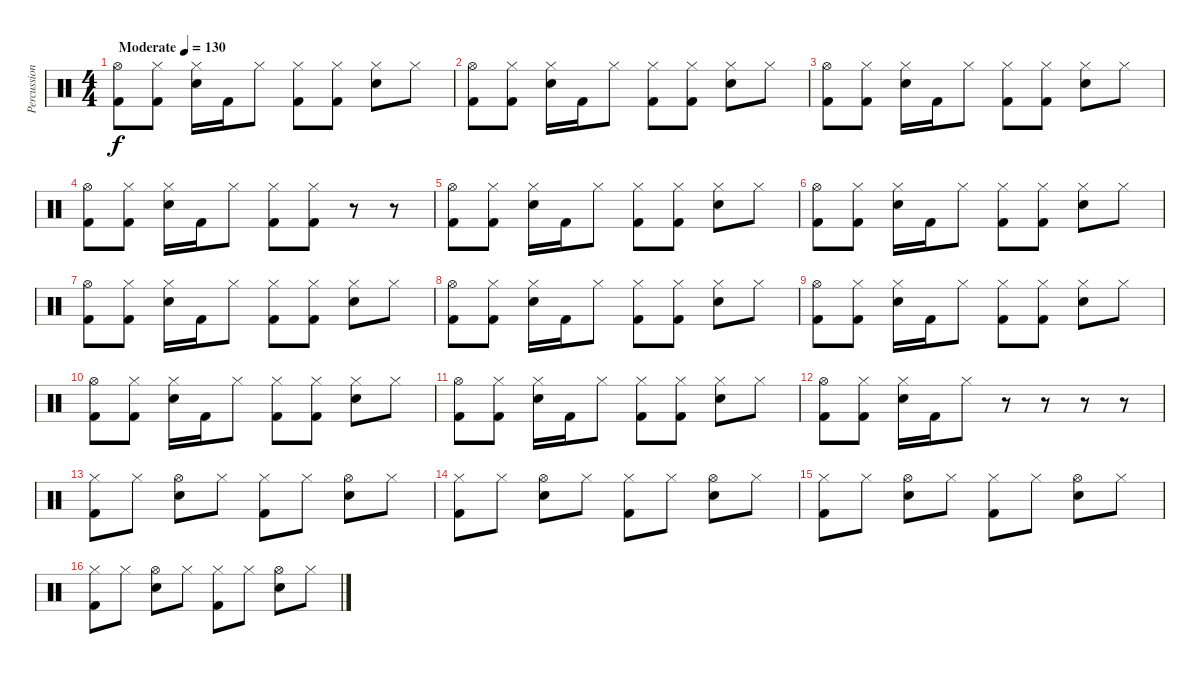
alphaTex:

\track ("Percussion" "Percussion") {instrument percussion}
\staff {score}
\articulation defaults
\ts (4 4)
\tempo (130 "Moderate")
\clef neutral
\ks c
("Hi-Hat (open)" "Kick (hit) 2").8{dy f} ("Hi-Hat (closed)" "Kick (hit) 2").8 ("Hi-Hat (closed)" "Electric Snare (hit)").16 "Kick (hit) 2".16 "Hi-Hat (closed)".8 ("Hi-Hat (closed)" "Kick (hit) 2").8 ("Hi-Hat (closed)" "Kick (hit) 2").8 ("Hi-Hat (closed)" "Electric Snare (hit)").8 "Hi-Hat (closed)".8 |
("Hi-Hat (open)" "Kick (hit) 2").8 ("Hi-Hat (closed)" "Kick (hit) 2").8 ("Hi-Hat (closed)" "Electric Snare (hit)").16 "Kick (hit) 2".16 "Hi-Hat (closed)".8 ("Hi-Hat (closed)" "Kick (hit) 2").8 ("Hi-Hat (closed)" "Kick (hit) 2").8 ("Hi-Hat (closed)" "Electric Snare (hit)").8 "Hi-Hat (closed)".8 |
("Hi-Hat (open)" "Kick (hit) 2").8 ("Hi-Hat (closed)" "Kick (hit) 2").8 ("Hi-Hat (closed)" "Electric Snare (hit)").16 "Kick (hit) 2".16 "Hi-Hat (closed)".8 ("Hi-Hat (closed)" "Kick (hit) 2").8 ("Hi-Hat (closed)" "Kick (hit) 2").8 ("Hi-Hat (closed)" "Electric Snare (hit)").8 "Hi-Hat (closed)".8 |
("Hi-Hat (open)" "Kick (hit) 2").8 ("Hi-Hat (closed)" "Kick (hit) 2").8 ("Hi-Hat (closed)" "Electric Snare (hit)").16 "Kick (hit) 2".16 "Hi-Hat (closed)".8 ("Hi-Hat (closed)" "Kick (hit) 2").8 ("Hi-Hat (closed)" "Kick (hit) 2").8 r.8 r.8 |
("Hi-Hat (open)" "Kick (hit) 2").8 ("Hi-Hat (closed)" "Kick (hit) 2").8 ("Hi-Hat (closed)" "Electric Snare (hit)").16 "Kick (hit) 2".16 "Hi-Hat (closed)".8 ("Hi-Hat (closed)" "Kick (hit) 2").8 ("Hi-Hat (closed)" "Kick (hit) 2").8 ("Hi-Hat (closed)" "Electric Snare (hit)").8 "Hi-Hat (closed)".8 |
("Hi-Hat (open)" "Kick (hit) 2").8 ("Hi-Hat (closed)" "Kick (hit) 2").8 ("Hi-Hat (closed)" "Electric Snare (hit)").16 "Kick (hit) 2".16 "Hi-Hat (closed)".8 ("Hi-Hat (closed)" "Kick (hit) 2").8 ("Hi-Hat (closed)" "Kick (hit) 2").8 ("Hi-Hat (closed)" "Electric Snare (hit)").8 "Hi-Hat (closed)".8 |
("Hi-Hat (open)" "Kick (hit) 2").8 ("Hi-Hat (closed)" "Kick (hit) 2").8 ("Hi-Hat (closed)" "Electric Snare (hit)").16 "Kick (hit) 2".16 "Hi-Hat (closed)".8 ("Hi-Hat (closed)" "Kick (hit) 2").8 ("Hi-Hat (closed)" "Kick (hit) 2").8 ("Hi-Hat (closed)" "Electric Snare (hit)").8 "Hi-Hat (closed)".8 |
("Hi-Hat (open)" "Kick (hit) 2").8 ("Hi-Hat (closed)" "Kick (hit) 2").8 ("Hi-Hat (closed)" "Electric Snare (hit)").16 "Kick (hit) 2".16 "Hi-Hat (closed)".8 ("Hi-Hat (closed)" "Kick (hit) 2").8 ("Hi-Hat (closed)" "Kick (hit) 2").8 ("Hi-Hat (closed)" "Electric Snare (hit)").8 "Hi-Hat (closed)".8 |
("Hi-Hat (open)" "Kick (hit) 2").8 ("Hi-Hat (closed)" "Kick (hit) 2").8 ("Hi-Hat (closed)" "Electric Snare (hit)").16 "Kick (hit) 2".16 "Hi-Hat (closed)".8 ("Hi-Hat (closed)" "Kick (hit) 2").8 ("Hi-Hat (closed)" "Kick (hit) 2").8 ("Hi-Hat (closed)" "Electric Snare (hit)").8 "Hi-Hat (closed)".8 |
("Hi-Hat (open)" "Kick (hit) 2").8 ("Hi-Hat (closed)" "Kick (hit) 2").8 ("Hi-Hat (closed)" "Electric Snare (hit)").16 "Kick (hit) 2".16 "Hi-Hat (closed)".8 ("Hi-Hat (closed)" "Kick (hit) 2").8 ("Hi-Hat (closed)" "Kick (hit) 2").8 ("Hi-Hat (closed)" "Electric Snare (hit)").8 "Hi-Hat (closed)".8 |
("Hi-Hat (open)" "Kick (hit) 2").8 ("Hi-Hat (closed)" "Kick (hit) 2").8 ("Hi-Hat (closed)" "Electric Snare (hit)").16 "Kick (hit) 2".16 "Hi-Hat (closed)".8 ("Hi-Hat (closed)" "Kick (hit) 2").8 ("Hi-Hat (closed)" "Kick (hit) 2").8 ("Hi-Hat (closed)" "Electric Snare (hit)").8 "Hi-Hat (closed)".8 |
("Hi-Hat (open)" "Kick (hit) 2").8 ("Hi-Hat (closed)" "Kick (hit) 2").8 ("Hi-Hat (closed)" "Electric Snare (hit)").16 "Kick (hit) 2".16 "Hi-Hat (closed)".8 r.8 r.8 r.8 r.8 |
("Hi-Hat (closed)" "Kick (hit) 2").8 "Hi-Hat (closed)".8 ("Hi-Hat (open)" "Electric Snare (hit)").8 "Hi-Hat (closed)".8 ("Hi-Hat (closed)" "Kick (hit) 2").8 "Hi-Hat (closed)".8 ("Hi-Hat (open)" "Electric Snare (hit)").8 "Hi-Hat (closed)".8 |
("Hi-Hat (closed)" "Kick (hit) 2").8 "Hi-Hat (closed)".8 ("Hi-Hat (open)" "Electric Snare (hit)").8 "Hi-Hat (closed)".8 ("Hi-Hat (closed)" "Kick (hit) 2").8 "Hi-Hat (closed)".8 ("Hi-Hat (open)" "Electric Snare (hit)").8 "Hi-Hat (closed)".8 |
("Hi-Hat (closed)" "Kick (hit) 2").8 "Hi-Hat (closed)".8 ("Hi-Hat (open)" "Electric Snare (hit)").8 "Hi-Hat (closed)".8 ("Hi-Hat (closed)" "Kick (hit) 2").8 "Hi-Hat (closed)".8 ("Hi-Hat (open)" "Electric Snare (hit)").8 "Hi-Hat (closed)".8 |
("Hi-Hat (closed)" "Kick (hit) 2").8 "Hi-Hat (closed)".8 ("Hi-Hat (open)" "Electric Snare (hit)").8 "Hi-Hat (closed)".8 ("Hi-Hat (closed)" "Kick (hit) 2").8 "Hi-Hat (closed)".8 ("Hi-Hat (open)" "Electric Snare (hit)").8 "Hi-Hat (closed)".8
